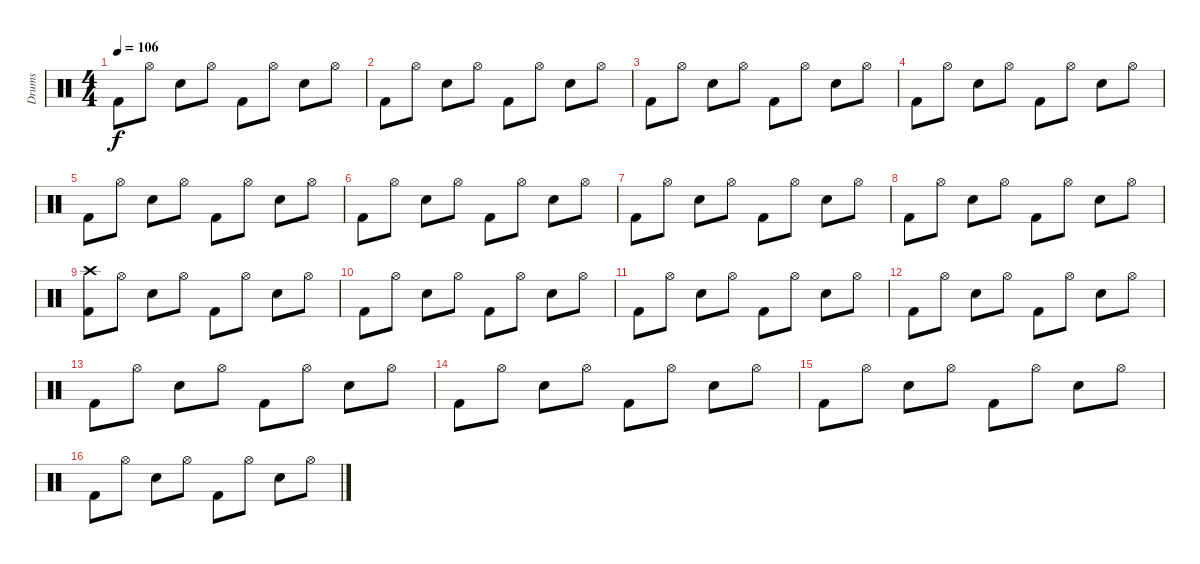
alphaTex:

\track ("Drums" "Drums") {instrument percussion}
\staff {score}
\articulation defaults
\ts (4 4)
\tempo 106
\clef neutral
\ks c "Kick (hit) 2".8{dy f} "Hi-Hat (open)".8 "Electric Snare (hit)".8 "Hi-Hat (open)".8 "Kick (hit) 2".8 "Hi-Hat (open)".8 "Electric Snare (hit)".8 "Hi-Hat (open)".8
|
"Kick (hit) 2".8 "Hi-Hat (open)".8 "Electric Snare (hit)".8 "Hi-Hat (open)".8 "Kick (hit) 2".8 "Hi-Hat (open)".8 "Electric Snare (hit)".8 "Hi-Hat (open)".8 |
"Kick (hit) 2".8 "Hi-Hat (open)".8 "Electric Snare (hit)".8 "Hi-Hat (open)".8 "Kick (hit) 2".8 "Hi-Hat (open)".8 "Electric Snare (hit)".8 "Hi-Hat (open)".8 |
"Kick (hit) 2".8 "Hi-Hat (open)".8 "Electric Snare (hit)".8 "Hi-Hat (open)".8 "Kick (hit) 2".8 "Hi-Hat (open)".8 "Electric Snare (hit)".8 "Hi-Hat (open)".8 |
"Kick (hit) 2".8 "Hi-Hat (open)".8 "Electric Snare (hit)".8 "Hi-Hat (open)".8 "Kick (hit) 2".8 "Hi-Hat (open)".8 "Electric Snare (hit)".8 "Hi-Hat (open)".8 |
"Kick (hit) 2".8 "Hi-Hat (open)".8 "Electric Snare (hit)".8 "Hi-Hat (open)".8 "Kick (hit) 2".8 "Hi-Hat (open)".8 "Electric Snare (hit)".8 "Hi-Hat (open)".8 |
"Kick (hit) 2".8 "Hi-Hat (open)".8 "Electric Snare (hit)".8 "Hi-Hat (open)".8 "Kick (hit) 2".8 "Hi-Hat (open)".8 "Electric Snare (hit)".8 "Hi-Hat (open)".8 |
"Kick (hit) 2".8 "Hi-Hat (open)".8 "Electric Snare (hit)".8 "Hi-Hat (open)".8 "Kick (hit) 2".8 "Hi-Hat (open)".8 "Electric Snare (hit)".8 "Hi-Hat (open)".8 |
("Crash high (hit)" "Kick (hit) 2").8 "Hi-Hat (open)".8 "Electric Snare (hit)".8 "Hi-Hat (open)".8 "Kick (hit) 2".8 "Hi-Hat (open)".8 "Electric Snare (hit)".8 "Hi-Hat (open)".8 |
"Kick (hit) 2".8 "Hi-Hat (open)".8 "Electric Snare (hit)".8 "Hi-Hat (open)".8 "Kick (hit) 2".8 "Hi-Hat (open)".8 "Electric Snare (hit)".8 "Hi-Hat (open)".8 |
"Kick (hit) 2".8 "Hi-Hat (open)".8 "Electric Snare (hit)".8 "Hi-Hat (open)".8 "Kick (hit) 2".8 "Hi-Hat (open)".8 "Electric Snare (hit)".8 "Hi-Hat (open)".8 |
"Kick (hit) 2".8 "Hi-Hat (open)".8 "Electric Snare (hit)".8 "Hi-Hat (open)".8 "Kick (hit) 2".8 "Hi-Hat (open)".8 "Electric Snare (hit)".8 "Hi-Hat (open)".8 |
"Kick (hit) 2".8 "Hi-Hat (open)".8 "Electric Snare (hit)".8 "Hi-Hat (open)".8 "Kick (hit) 2".8 "Hi-Hat (open)".8 "Electric Snare (hit)".8 "Hi-Hat (open)".8 |
"Kick (hit) 2".8 "Hi-Hat (open)".8 "Electric Snare (hit)".8 "Hi-Hat (open)".8 "Kick (hit) 2".8 "Hi-Hat (open)".8 "Electric Snare (hit)".8 "Hi-Hat (open)".8 |
"Kick (hit) 2".8 "Hi-Hat (open)".8 "Electric Snare (hit)".8 "Hi-Hat (open)".8 "Kick (hit) 2".8 "Hi-Hat (open)".8 "Electric Snare (hit)".8 "Hi-Hat (open)".8 |
"Kick (hit) 2".8 "Hi-Hat (open)".8 "Electric Snare (hit)".8 "Hi-Hat (open)".8 "Kick (hit) 2".8 "Hi-Hat (open)".8 "Electric Snare (hit)".8 "Hi-Hat (open)".8
